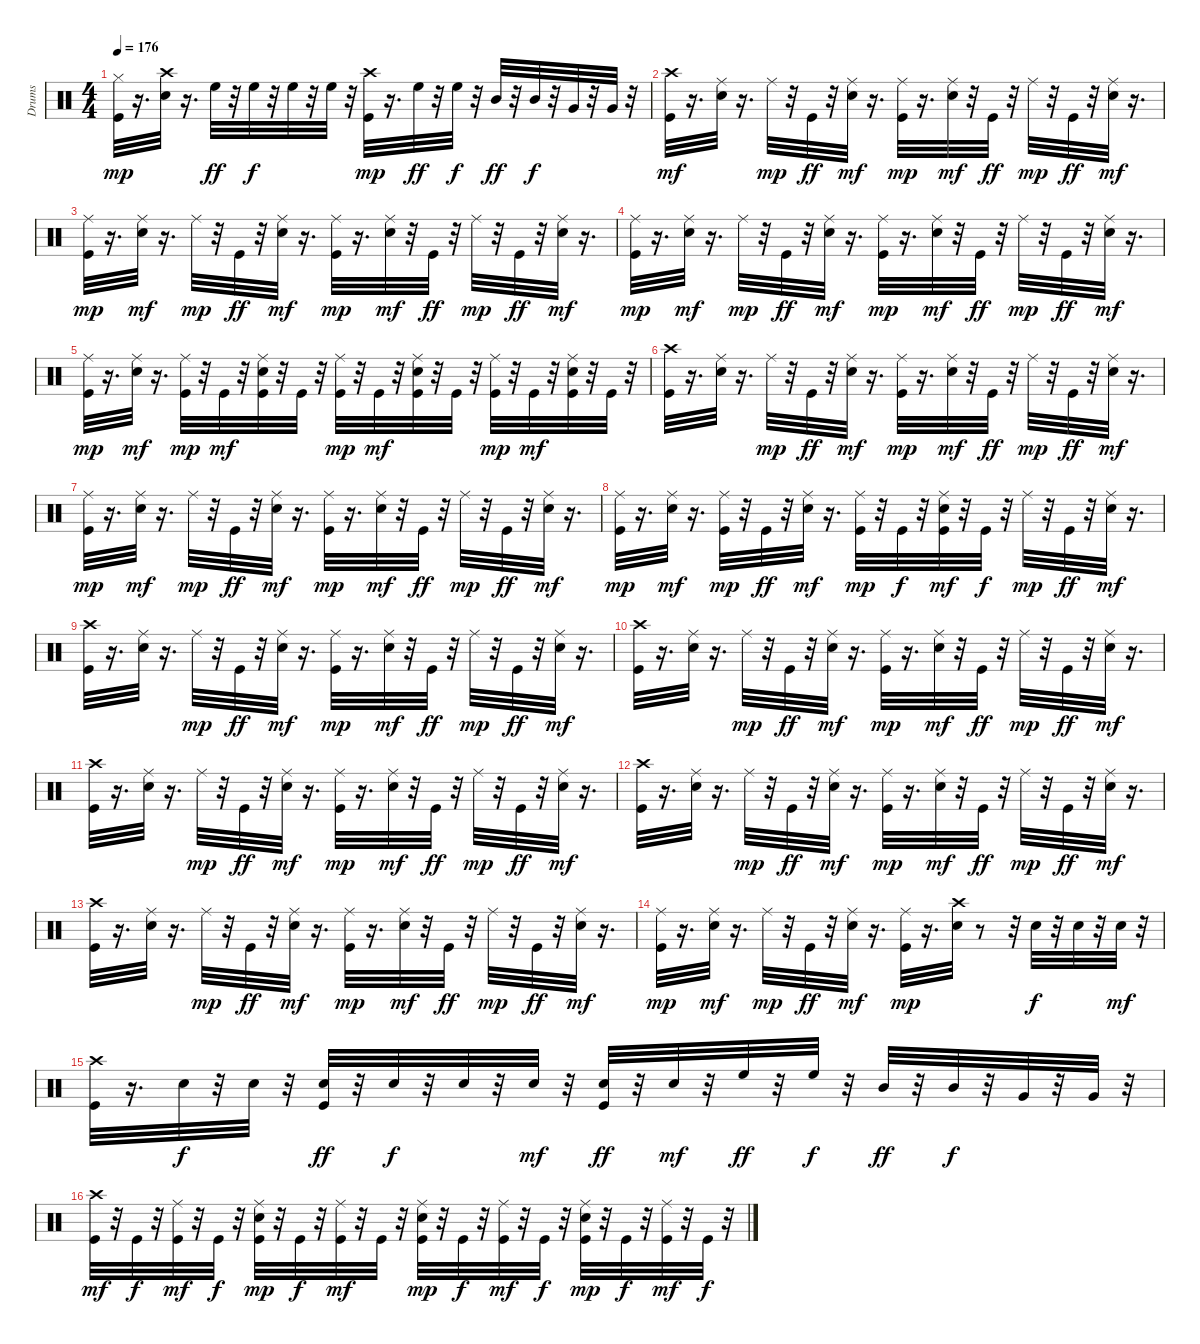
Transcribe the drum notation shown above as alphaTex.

\track ("Drums" "Drums") {instrument percussion}
\staff {score}
\articulation defaults
\ts (4 4)
\tempo 176
\clef neutral
\ks c
("Kick (hit)" "Hi-Hat (closed)").32{dy mp} r.16{d} ("Snare (hit) 2" "Crash high (hit)").32 r.16{d} "High Floor Tom (hit)".32{dy ff} r.32 "High Floor Tom (hit)".32{dy f} r.32 "High Floor Tom (hit)".32 r.32 "High Floor Tom (hit)".32 r.32 ("Kick (hit)" "Crash high (hit)").32{dy mp} r.16{d} "High Floor Tom (hit)".32{dy ff} r.32 "High Floor Tom (hit)".32{dy f} r.32 "Mid Tom (hit)".32{dy ff} r.32 "Mid Tom (hit)".32{dy f} r.32 "Very Low Tom (hit)".32 r.32 "Very Low Tom (hit)".32 r.32 |
("Kick (hit)" "Crash high (hit)").32{dy mf} r.16{d} ("Snare (hit) 2" "Ride (middle)").32 r.16{d} "Ride (middle)".32{dy mp} r.32 "Kick (hit)".32{dy ff} r.32 ("Snare (hit) 2" "Ride (middle)").32{dy mf} r.16{d} ("Kick (hit)" "Ride (middle)").32{dy mp} r.16{d} ("Snare (hit) 2" "Ride (middle)").32{dy mf} r.32 "Kick (hit)".32{dy ff} r.32 "Ride (middle)".32{dy mp} r.32 "Kick (hit)".32{dy ff} r.32 ("Snare (hit) 2" "Ride (middle)").32{dy mf} r.16{d} |
("Kick (hit)" "Ride (middle)").32{dy mp} r.16{d} ("Snare (hit) 2" "Ride (middle)").32{dy mf} r.16{d} "Ride (middle)".32{dy mp} r.32 "Kick (hit)".32{dy ff} r.32 ("Snare (hit) 2" "Ride (middle)").32{dy mf} r.16{d} ("Kick (hit)" "Ride (middle)").32{dy mp} r.16{d} ("Snare (hit) 2" "Ride (middle)").32{dy mf} r.32 "Kick (hit)".32{dy ff} r.32 "Ride (middle)".32{dy mp} r.32 "Kick (hit)".32{dy ff} r.32 ("Snare (hit) 2" "Ride (middle)").32{dy mf} r.16{d} |
("Kick (hit)" "Ride (middle)").32{dy mp} r.16{d} ("Snare (hit) 2" "Ride (middle)").32{dy mf} r.16{d} "Ride (middle)".32{dy mp} r.32 "Kick (hit)".32{dy ff} r.32 ("Snare (hit) 2" "Ride (middle)").32{dy mf} r.16{d} ("Kick (hit)" "Ride (middle)").32{dy mp} r.16{d} ("Snare (hit) 2" "Ride (middle)").32{dy mf} r.32 "Kick (hit)".32{dy ff} r.32 "Ride (middle)".32{dy mp} r.32 "Kick (hit)".32{dy ff} r.32 ("Snare (hit) 2" "Ride (middle)").32{dy mf} r.16{d} |
("Kick (hit)" "Ride (middle)").32{dy mp} r.16{d} ("Snare (hit) 2" "Ride (middle)").32{dy mf} r.16{d} ("Kick (hit)" "Ride (middle)").32{dy mp} r.32 "Kick (hit)".32{dy mf} r.32 ("Kick (hit)" "Snare (hit) 2" "Ride (middle)").32 r.32 "Kick (hit)".32 r.32 ("Kick (hit)" "Ride (middle)").32{dy mp} r.32 "Kick (hit)".32{dy mf} r.32 ("Kick (hit)" "Snare (hit) 2" "Ride (middle)").32 r.32 "Kick (hit)".32 r.32 ("Kick (hit)" "Ride (middle)").32{dy mp} r.32 "Kick (hit)".32{dy mf} r.32 ("Kick (hit)" "Snare (hit) 2" "Ride (middle)").32 r.32 "Kick (hit)".32 r.32 |
("Kick (hit)" "Crash high (hit)").32 r.16{d} ("Snare (hit) 2" "Ride (middle)").32 r.16{d} "Ride (middle)".32{dy mp} r.32 "Kick (hit)".32{dy ff} r.32 ("Snare (hit) 2" "Ride (middle)").32{dy mf} r.16{d} ("Kick (hit)" "Ride (middle)").32{dy mp} r.16{d} ("Snare (hit) 2" "Ride (middle)").32{dy mf} r.32 "Kick (hit)".32{dy ff} r.32 "Ride (middle)".32{dy mp} r.32 "Kick (hit)".32{dy ff} r.32 ("Snare (hit) 2" "Ride (middle)").32{dy mf} r.16{d} |
("Kick (hit)" "Ride (middle)").32{dy mp} r.16{d} ("Snare (hit) 2" "Ride (middle)").32{dy mf} r.16{d} "Ride (middle)".32{dy mp} r.32 "Kick (hit)".32{dy ff} r.32 ("Snare (hit) 2" "Ride (middle)").32{dy mf} r.16{d} ("Kick (hit)" "Ride (middle)").32{dy mp} r.16{d} ("Snare (hit) 2" "Ride (middle)").32{dy mf} r.32 "Kick (hit)".32{dy ff} r.32 "Ride (middle)".32{dy mp} r.32 "Kick (hit)".32{dy ff} r.32 ("Snare (hit) 2" "Ride (middle)").32{dy mf} r.16{d} |
("Kick (hit)" "Ride (middle)").32{dy mp} r.16{d} ("Snare (hit) 2" "Ride (middle)").32{dy mf} r.16{d} ("Kick (hit)" "Ride (middle)").32{dy mp} r.32 "Kick (hit)".32{dy ff} r.32 ("Snare (hit) 2" "Ride (middle)").32{dy mf} r.16{d} ("Kick (hit)" "Ride (middle)").32{dy mp} r.32 "Kick (hit)".32{dy f} r.32 ("Kick (hit)" "Snare (hit) 2" "Ride (middle)").32{dy mf} r.32 "Kick (hit)".32{dy f} r.32 "Ride (middle)".32{dy mp} r.32 "Kick (hit)".32{dy ff} r.32 ("Snare (hit) 2" "Ride (middle)").32{dy mf} r.16{d} |
("Kick (hit)" "Crash high (hit)").32 r.16{d} ("Snare (hit) 2" "Ride (middle)").32 r.16{d} "Ride (middle)".32{dy mp} r.32 "Kick (hit)".32{dy ff} r.32 ("Snare (hit) 2" "Ride (middle)").32{dy mf} r.16{d} ("Kick (hit)" "Ride (middle)").32{dy mp} r.16{d} ("Snare (hit) 2" "Ride (middle)").32{dy mf} r.32 "Kick (hit)".32{dy ff} r.32 "Ride (middle)".32{dy mp} r.32 "Kick (hit)".32{dy ff} r.32 ("Snare (hit) 2" "Ride (middle)").32{dy mf} r.16{d} |
("Kick (hit)" "Crash high (hit)").32 r.16{d} ("Snare (hit) 2" "Ride (middle)").32 r.16{d} "Ride (middle)".32{dy mp} r.32 "Kick (hit)".32{dy ff} r.32 ("Snare (hit) 2" "Ride (middle)").32{dy mf} r.16{d} ("Kick (hit)" "Ride (middle)").32{dy mp} r.16{d} ("Snare (hit) 2" "Ride (middle)").32{dy mf} r.32 "Kick (hit)".32{dy ff} r.32 "Ride (middle)".32{dy mp} r.32 "Kick (hit)".32{dy ff} r.32 ("Snare (hit) 2" "Ride (middle)").32{dy mf} r.16{d} |
("Kick (hit)" "Crash high (hit)").32 r.16{d} ("Snare (hit) 2" "Ride (middle)").32 r.16{d} "Ride (middle)".32{dy mp} r.32 "Kick (hit)".32{dy ff} r.32 ("Snare (hit) 2" "Ride (middle)").32{dy mf} r.16{d} ("Kick (hit)" "Ride (middle)").32{dy mp} r.16{d} ("Snare (hit) 2" "Ride (middle)").32{dy mf} r.32 "Kick (hit)".32{dy ff} r.32 "Ride (middle)".32{dy mp} r.32 "Kick (hit)".32{dy ff} r.32 ("Snare (hit) 2" "Ride (middle)").32{dy mf} r.16{d} |
("Kick (hit)" "Crash high (hit)").32 r.16{d} ("Snare (hit) 2" "Ride (middle)").32 r.16{d} "Ride (middle)".32{dy mp} r.32 "Kick (hit)".32{dy ff} r.32 ("Snare (hit) 2" "Ride (middle)").32{dy mf} r.16{d} ("Kick (hit)" "Ride (middle)").32{dy mp} r.16{d} ("Snare (hit) 2" "Ride (middle)").32{dy mf} r.32 "Kick (hit)".32{dy ff} r.32 "Ride (middle)".32{dy mp} r.32 "Kick (hit)".32{dy ff} r.32 ("Snare (hit) 2" "Ride (middle)").32{dy mf} r.16{d} |
("Kick (hit)" "Crash high (hit)").32 r.16{d} ("Snare (hit) 2" "Ride (middle)").32 r.16{d} "Ride (middle)".32{dy mp} r.32 "Kick (hit)".32{dy ff} r.32 ("Snare (hit) 2" "Ride (middle)").32{dy mf} r.16{d} ("Kick (hit)" "Ride (middle)").32{dy mp} r.16{d} ("Snare (hit) 2" "Ride (middle)").32{dy mf} r.32 "Kick (hit)".32{dy ff} r.32 "Ride (middle)".32{dy mp} r.32 "Kick (hit)".32{dy ff} r.32 ("Snare (hit) 2" "Ride (middle)").32{dy mf} r.16{d} |
("Kick (hit)" "Ride (middle)").32{dy mp} r.16{d} ("Snare (hit) 2" "Ride (middle)").32{dy mf} r.16{d} "Ride (middle)".32{dy mp} r.32 "Kick (hit)".32{dy ff} r.32 ("Snare (hit) 2" "Ride (middle)").32{dy mf} r.16{d} ("Kick (hit)" "Ride (middle)").32{dy mp} r.16{d} ("Snare (hit) 2" "Crash high (hit)").32 r.8 r.32 "Snare (hit) 2".32{dy f} r.32 "Snare (hit) 2".32 r.32 "Snare (hit) 2".32{dy mf} r.32 |
("Kick (hit)" "Crash high (hit)").32 r.16{d} "Snare (hit) 2".32{dy f} r.32 "Snare (hit) 2".32 r.32 ("Kick (hit)" "Snare (hit) 2").32{dy ff} r.32 "Snare (hit) 2".32{dy f} r.32 "Snare (hit) 2".32 r.32 "Snare (hit) 2".32{dy mf} r.32 ("Kick (hit)" "Snare (hit) 2").32{dy ff} r.32 "Snare (hit) 2".32{dy mf} r.32 "High Floor Tom (hit)".32{dy ff} r.32 "High Floor Tom (hit)".32{dy f} r.32 "Mid Tom (hit)".32{dy ff} r.32 "Mid Tom (hit)".32{dy f} r.32 "Very Low Tom (hit)".32 r.32 "Very Low Tom (hit)".32 r.32 |
("Kick (hit)" "Crash high (hit)").32{dy mf} r.32 "Kick (hit)".32{dy f} r.32 ("Kick (hit)" "Ride (middle)").32{dy mf} r.32 "Kick (hit)".32{dy f} r.32 ("Kick (hit)" "Snare (hit) 2" "Ride (middle)").32{dy mp} r.32 "Kick (hit)".32{dy f} r.32 ("Kick (hit)" "Ride (middle)").32{dy mf} r.32 "Kick (hit)".32 r.32 ("Kick (hit)" "Snare (hit) 2" "Ride (middle)").32{dy mp} r.32 "Kick (hit)".32{dy f} r.32 ("Kick (hit)" "Ride (middle)").32{dy mf} r.32 "Kick (hit)".32{dy f} r.32 ("Kick (hit)" "Snare (hit) 2" "Ride (middle)").32{dy mp} r.32 "Kick (hit)".32{dy f} r.32 ("Kick (hit)" "Ride (middle)").32{dy mf} r.32 "Kick (hit)".32{dy f} r.32
